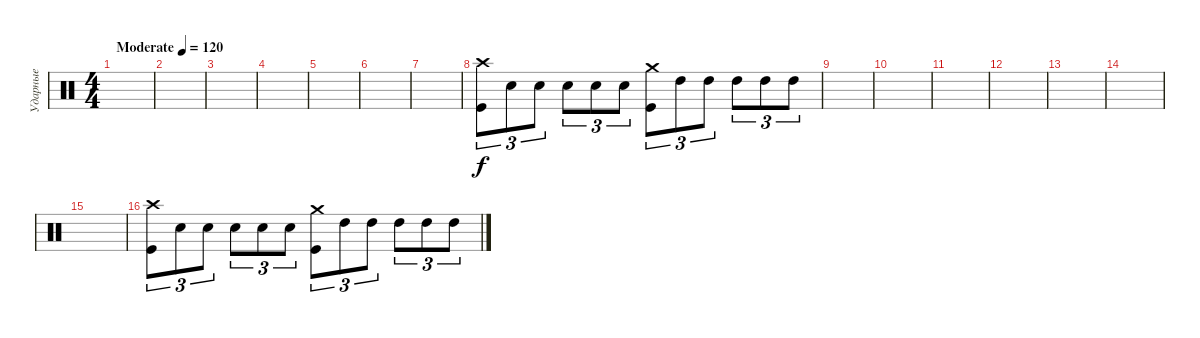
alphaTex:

\track ("Ударные" "Ударные") {instrument percussion}
\staff {score}
\articulation defaults
\ts (4 4)
\tempo (120 "Moderate")
\clef neutral
\ks c
|
|
|
|
|
|
|
("Kick (hit)" "Crash high (hit)").8{tu (3 2)} "Snare (hit) 2".8{tu (3 2)} "Snare (hit) 2".8{tu (3 2)} "Snare (hit) 2".8{tu (3 2)} "Snare (hit) 2".8{tu (3 2)} "Snare (hit) 2".8{tu (3 2)} ("Kick (hit)" "Crash medium (hit)").8{tu (3 2)} "High Tom (hit)".8{tu (3 2)} "High Tom (hit)".8{tu (3 2)} "High Tom (hit)".8{tu (3 2)} "High Tom (hit)".8{tu (3 2)} "High Tom (hit)".8{tu (3 2)} |
|
|
|
|
|
|
|
("Kick (hit)" "Crash high (hit)").8{tu (3 2)} "Snare (hit) 2".8{tu (3 2)} "Snare (hit) 2".8{tu (3 2)} "Snare (hit) 2".8{tu (3 2)} "Snare (hit) 2".8{tu (3 2)} "Snare (hit) 2".8{tu (3 2)} ("Kick (hit)" "Crash medium (hit)").8{tu (3 2)} "High Tom (hit)".8{tu (3 2)} "High Tom (hit)".8{tu (3 2)} "High Tom (hit)".8{tu (3 2)} "High Tom (hit)".8{tu (3 2)} "High Tom (hit)".8{tu (3 2)}
